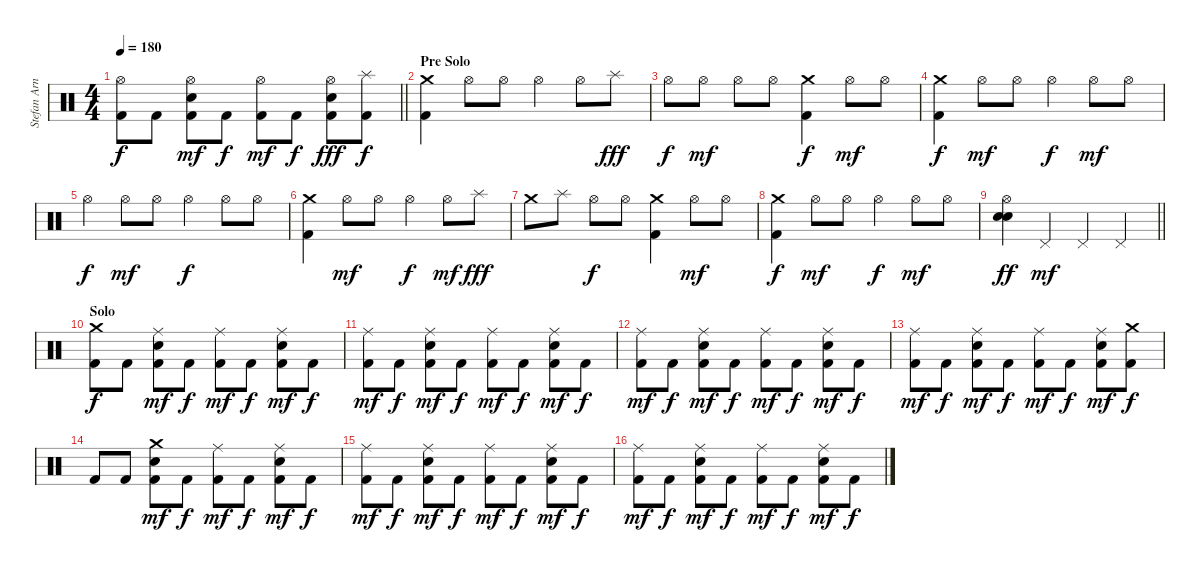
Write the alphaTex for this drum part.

\track ("Stefan Arnold" "Stefan Arn") {instrument percussion}
\staff {score}
\articulation defaults
\ts (4 4)
\tempo 180
\clef neutral
\barLineRight lightlight
\ks c
("Hi-Hat (open)" "Kick (hit) 2").8{dy f} "Kick (hit) 2".8 ("Hi-Hat (open)" "Electric Snare (hit)" "Kick (hit) 2").8{dy mf} "Kick (hit) 2".8{dy f} ("Hi-Hat (open)" "Kick (hit) 2").8{dy mf} "Kick (hit) 2".8{dy f} ("Hi-Hat (open)" "Electric Snare (hit)" "Kick (hit) 2").8{dy fff} ("Splash (hit)" "Kick (hit) 2").8{dy f} |
\section ("" "Pre Solo")
("Crash medium (hit)" "Kick (hit) 2").4 "Hi-Hat (open)".8 "Hi-Hat (open)".8 "Hi-Hat (open)".4 "Hi-Hat (open)".8 "Splash (hit)".8{dy fff} |
"Hi-Hat (open)".8{dy f} "Hi-Hat (open)".8{dy mf} "Hi-Hat (open)".8 "Hi-Hat (open)".8 ("Crash medium (hit)" "Kick (hit) 2").4{dy f} "Hi-Hat (open)".8{dy mf} "Hi-Hat (open)".8 |
("Crash medium (hit)" "Kick (hit) 2").4{dy f} "Hi-Hat (open)".8{dy mf} "Hi-Hat (open)".8 "Hi-Hat (open)".4{dy f} "Hi-Hat (open)".8{dy mf} "Hi-Hat (open)".8 |
"Hi-Hat (open)".4{dy f} "Hi-Hat (open)".8{dy mf} "Hi-Hat (open)".8 "Hi-Hat (open)".4{dy f} "Hi-Hat (open)".8 "Hi-Hat (open)".8 |
("Crash medium (hit)" "Kick (hit) 2").4 "Hi-Hat (open)".8{dy mf} "Hi-Hat (open)".8 "Hi-Hat (open)".4{dy f} "Hi-Hat (open)".8{dy mf} "Splash (hit)".8{dy fff} |
"Crash medium (hit)".8 "Splash (hit)".8 "Hi-Hat (open)".8{dy f} "Hi-Hat (open)".8 ("Crash medium (hit)" "Kick (hit) 2").4 "Hi-Hat (open)".8{dy mf} "Hi-Hat (open)".8 |
("Crash medium (hit)" "Kick (hit) 2").4{dy f} "Hi-Hat (open)".8{dy mf} "Hi-Hat (open)".8 "Hi-Hat (open)".4{dy f} "Hi-Hat (open)".8{dy mf} "Hi-Hat (open)".8 |
\barLineRight lightlight
("Hi-Hat (open)" "Electric Snare (hit)" "Electric Snare (hit)").4{dy ff} "Pedal Hi-Hat (hit)".4{dy mf} "Pedal Hi-Hat (hit)".4 "Pedal Hi-Hat (hit)".4 |
\section ("" "Solo")
("Crash medium (hit)" "Kick (hit) 2").8{dy f} "Kick (hit) 2".8 ("Ride (middle)" "Electric Snare (hit)" "Kick (hit) 2").8{dy mf} "Kick (hit) 2".8{dy f} ("Ride (middle)" "Kick (hit) 2").8{dy mf} "Kick (hit) 2".8{dy f} ("Ride (middle)" "Electric Snare (hit)" "Kick (hit) 2").8{dy mf} "Kick (hit) 2".8{dy f} |
("Ride (middle)" "Kick (hit) 2").8{dy mf} "Kick (hit) 2".8{dy f} ("Ride (middle)" "Electric Snare (hit)" "Kick (hit) 2").8{dy mf} "Kick (hit) 2".8{dy f} ("Ride (middle)" "Kick (hit) 2").8{dy mf} "Kick (hit) 2".8{dy f} ("Ride (middle)" "Electric Snare (hit)" "Kick (hit) 2").8{dy mf} "Kick (hit) 2".8{dy f} |
("Ride (middle)" "Kick (hit) 2").8{dy mf} "Kick (hit) 2".8{dy f} ("Ride (middle)" "Electric Snare (hit)" "Kick (hit) 2").8{dy mf} "Kick (hit) 2".8{dy f} ("Ride (middle)" "Kick (hit) 2").8{dy mf} "Kick (hit) 2".8{dy f} ("Ride (middle)" "Electric Snare (hit)" "Kick (hit) 2").8{dy mf} "Kick (hit) 2".8{dy f} |
("Ride (middle)" "Kick (hit) 2").8{dy mf} "Kick (hit) 2".8{dy f} ("Ride (middle)" "Electric Snare (hit)" "Kick (hit) 2").8{dy mf} "Kick (hit) 2".8{dy f} ("Ride (middle)" "Kick (hit) 2").8{dy mf} "Kick (hit) 2".8{dy f} ("Ride (middle)" "Electric Snare (hit)" "Kick (hit) 2").8{dy mf} ("Crash medium (hit)" "Kick (hit) 2").8{dy f} |
"Kick (hit) 2".8 "Kick (hit) 2".8 ("Crash medium (hit)" "Electric Snare (hit)" "Kick (hit) 2").8{dy mf} "Kick (hit) 2".8{dy f} ("Ride (middle)" "Kick (hit) 2").8{dy mf} "Kick (hit) 2".8{dy f} ("Ride (middle)" "Electric Snare (hit)" "Kick (hit) 2").8{dy mf} "Kick (hit) 2".8{dy f} |
("Ride (middle)" "Kick (hit) 2").8{dy mf} "Kick (hit) 2".8{dy f} ("Ride (middle)" "Electric Snare (hit)" "Kick (hit) 2").8{dy mf} "Kick (hit) 2".8{dy f} ("Ride (middle)" "Kick (hit) 2").8{dy mf} "Kick (hit) 2".8{dy f} ("Ride (middle)" "Electric Snare (hit)" "Kick (hit) 2").8{dy mf} "Kick (hit) 2".8{dy f} |
("Ride (middle)" "Kick (hit) 2").8{dy mf} "Kick (hit) 2".8{dy f} ("Ride (middle)" "Electric Snare (hit)" "Kick (hit) 2").8{dy mf} "Kick (hit) 2".8{dy f} ("Ride (middle)" "Kick (hit) 2").8{dy mf} "Kick (hit) 2".8{dy f} ("Ride (middle)" "Electric Snare (hit)" "Kick (hit) 2").8{dy mf} "Kick (hit) 2".8{dy f}
